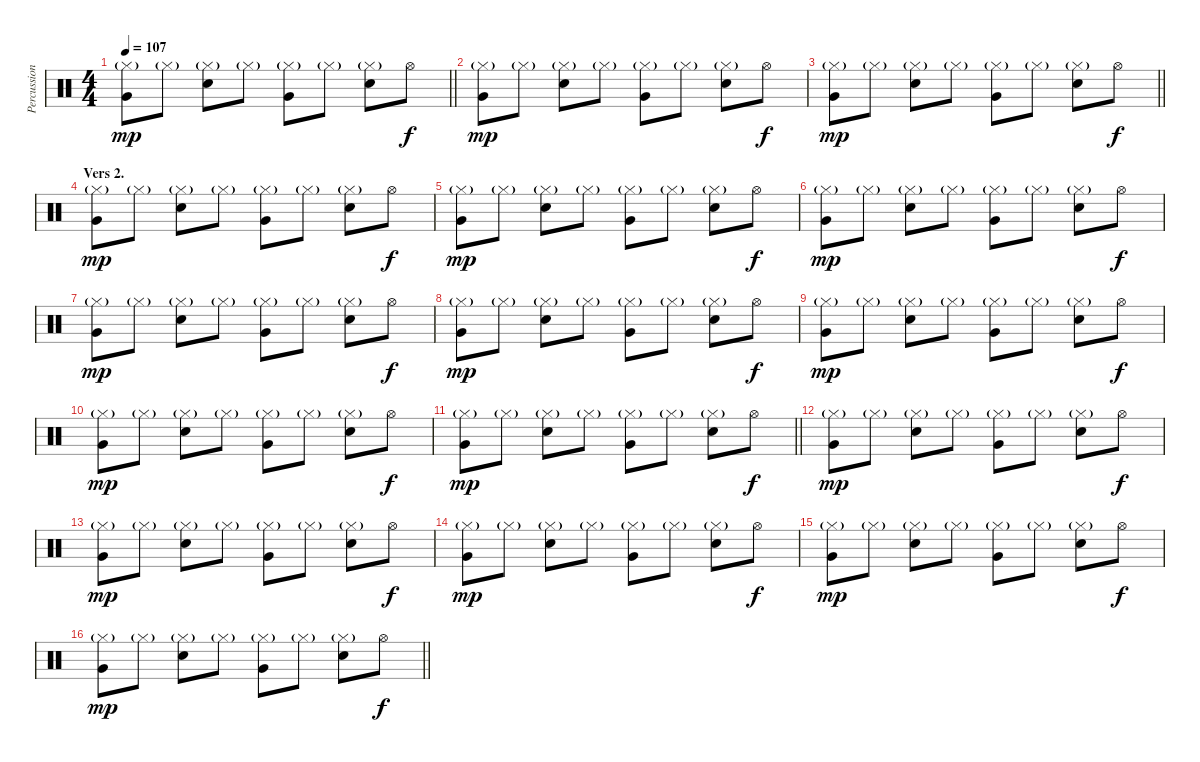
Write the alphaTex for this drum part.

\track ("Percussion" "Percussion") {instrument percussion}
\staff {score}
\articulation defaults
\ts (4 4)
\tempo 107
\clef neutral
\barLineRight lightlight
\ks c
("Hi-Hat (closed)"{g} "Very Low Tom (hit)").8{dy mp} "Hi-Hat (closed)"{g}.8 ("Hi-Hat (closed)"{g} "Electric Snare (hit)").8 "Hi-Hat (closed)"{g}.8 ("Hi-Hat (closed)"{g} "Very Low Tom (hit)").8 "Hi-Hat (closed)"{g}.8 ("Hi-Hat (closed)"{g} "Electric Snare (hit)").8 "Hi-Hat (open)".8{dy f} |
("Hi-Hat (closed)"{g} "Very Low Tom (hit)").8{dy mp} "Hi-Hat (closed)"{g}.8 ("Hi-Hat (closed)"{g} "Electric Snare (hit)").8 "Hi-Hat (closed)"{g}.8 ("Hi-Hat (closed)"{g} "Very Low Tom (hit)").8 "Hi-Hat (closed)"{g}.8 ("Hi-Hat (closed)"{g} "Electric Snare (hit)").8 "Hi-Hat (open)".8{dy f} |
\barLineRight lightlight
("Hi-Hat (closed)"{g} "Very Low Tom (hit)").8{dy mp} "Hi-Hat (closed)"{g}.8 ("Hi-Hat (closed)"{g} "Electric Snare (hit)").8 "Hi-Hat (closed)"{g}.8 ("Hi-Hat (closed)"{g} "Very Low Tom (hit)").8 "Hi-Hat (closed)"{g}.8 ("Hi-Hat (closed)"{g} "Electric Snare (hit)").8 "Hi-Hat (open)".8{dy f} |
\section ("" "Vers 2.")
("Hi-Hat (closed)"{g} "Very Low Tom (hit)").8{dy mp} "Hi-Hat (closed)"{g}.8 ("Hi-Hat (closed)"{g} "Electric Snare (hit)").8 "Hi-Hat (closed)"{g}.8 ("Hi-Hat (closed)"{g} "Very Low Tom (hit)").8 "Hi-Hat (closed)"{g}.8 ("Hi-Hat (closed)"{g} "Electric Snare (hit)").8 "Hi-Hat (open)".8{dy f} |
("Hi-Hat (closed)"{g} "Very Low Tom (hit)").8{dy mp} "Hi-Hat (closed)"{g}.8 ("Hi-Hat (closed)"{g} "Electric Snare (hit)").8 "Hi-Hat (closed)"{g}.8 ("Hi-Hat (closed)"{g} "Very Low Tom (hit)").8 "Hi-Hat (closed)"{g}.8 ("Hi-Hat (closed)"{g} "Electric Snare (hit)").8 "Hi-Hat (open)".8{dy f} |
("Hi-Hat (closed)"{g} "Very Low Tom (hit)").8{dy mp} "Hi-Hat (closed)"{g}.8 ("Hi-Hat (closed)"{g} "Electric Snare (hit)").8 "Hi-Hat (closed)"{g}.8 ("Hi-Hat (closed)"{g} "Very Low Tom (hit)").8 "Hi-Hat (closed)"{g}.8 ("Hi-Hat (closed)"{g} "Electric Snare (hit)").8 "Hi-Hat (open)".8{dy f} |
("Hi-Hat (closed)"{g} "Very Low Tom (hit)").8{dy mp} "Hi-Hat (closed)"{g}.8 ("Hi-Hat (closed)"{g} "Electric Snare (hit)").8 "Hi-Hat (closed)"{g}.8 ("Hi-Hat (closed)"{g} "Very Low Tom (hit)").8 "Hi-Hat (closed)"{g}.8 ("Hi-Hat (closed)"{g} "Electric Snare (hit)").8 "Hi-Hat (open)".8{dy f} |
("Hi-Hat (closed)"{g} "Very Low Tom (hit)").8{dy mp} "Hi-Hat (closed)"{g}.8 ("Hi-Hat (closed)"{g} "Electric Snare (hit)").8 "Hi-Hat (closed)"{g}.8 ("Hi-Hat (closed)"{g} "Very Low Tom (hit)").8 "Hi-Hat (closed)"{g}.8 ("Hi-Hat (closed)"{g} "Electric Snare (hit)").8 "Hi-Hat (open)".8{dy f} |
("Hi-Hat (closed)"{g} "Very Low Tom (hit)").8{dy mp} "Hi-Hat (closed)"{g}.8 ("Hi-Hat (closed)"{g} "Electric Snare (hit)").8 "Hi-Hat (closed)"{g}.8 ("Hi-Hat (closed)"{g} "Very Low Tom (hit)").8 "Hi-Hat (closed)"{g}.8 ("Hi-Hat (closed)"{g} "Electric Snare (hit)").8 "Hi-Hat (open)".8{dy f} |
("Hi-Hat (closed)"{g} "Very Low Tom (hit)").8{dy mp} "Hi-Hat (closed)"{g}.8 ("Hi-Hat (closed)"{g} "Electric Snare (hit)").8 "Hi-Hat (closed)"{g}.8 ("Hi-Hat (closed)"{g} "Very Low Tom (hit)").8 "Hi-Hat (closed)"{g}.8 ("Hi-Hat (closed)"{g} "Electric Snare (hit)").8 "Hi-Hat (open)".8{dy f} |
\barLineRight lightlight
("Hi-Hat (closed)"{g} "Very Low Tom (hit)").8{dy mp} "Hi-Hat (closed)"{g}.8 ("Hi-Hat (closed)"{g} "Electric Snare (hit)").8 "Hi-Hat (closed)"{g}.8 ("Hi-Hat (closed)"{g} "Very Low Tom (hit)").8 "Hi-Hat (closed)"{g}.8 ("Hi-Hat (closed)"{g} "Electric Snare (hit)").8 "Hi-Hat (open)".8{dy f} |
("Hi-Hat (closed)"{g} "Very Low Tom (hit)").8{dy mp} "Hi-Hat (closed)"{g}.8 ("Hi-Hat (closed)"{g} "Electric Snare (hit)").8 "Hi-Hat (closed)"{g}.8 ("Hi-Hat (closed)"{g} "Very Low Tom (hit)").8 "Hi-Hat (closed)"{g}.8 ("Hi-Hat (closed)"{g} "Electric Snare (hit)").8 "Hi-Hat (open)".8{dy f} |
("Hi-Hat (closed)"{g} "Very Low Tom (hit)").8{dy mp} "Hi-Hat (closed)"{g}.8 ("Hi-Hat (closed)"{g} "Electric Snare (hit)").8 "Hi-Hat (closed)"{g}.8 ("Hi-Hat (closed)"{g} "Very Low Tom (hit)").8 "Hi-Hat (closed)"{g}.8 ("Hi-Hat (closed)"{g} "Electric Snare (hit)").8 "Hi-Hat (open)".8{dy f} |
("Hi-Hat (closed)"{g} "Very Low Tom (hit)").8{dy mp} "Hi-Hat (closed)"{g}.8 ("Hi-Hat (closed)"{g} "Electric Snare (hit)").8 "Hi-Hat (closed)"{g}.8 ("Hi-Hat (closed)"{g} "Very Low Tom (hit)").8 "Hi-Hat (closed)"{g}.8 ("Hi-Hat (closed)"{g} "Electric Snare (hit)").8 "Hi-Hat (open)".8{dy f} |
("Hi-Hat (closed)"{g} "Very Low Tom (hit)").8{dy mp} "Hi-Hat (closed)"{g}.8 ("Hi-Hat (closed)"{g} "Electric Snare (hit)").8 "Hi-Hat (closed)"{g}.8 ("Hi-Hat (closed)"{g} "Very Low Tom (hit)").8 "Hi-Hat (closed)"{g}.8 ("Hi-Hat (closed)"{g} "Electric Snare (hit)").8 "Hi-Hat (open)".8{dy f} |
\barLineRight lightlight
("Hi-Hat (closed)"{g} "Very Low Tom (hit)").8{dy mp} "Hi-Hat (closed)"{g}.8 ("Hi-Hat (closed)"{g} "Electric Snare (hit)").8 "Hi-Hat (closed)"{g}.8 ("Hi-Hat (closed)"{g} "Very Low Tom (hit)").8 "Hi-Hat (closed)"{g}.8 ("Hi-Hat (closed)"{g} "Electric Snare (hit)").8 "Hi-Hat (open)".8{dy f}
